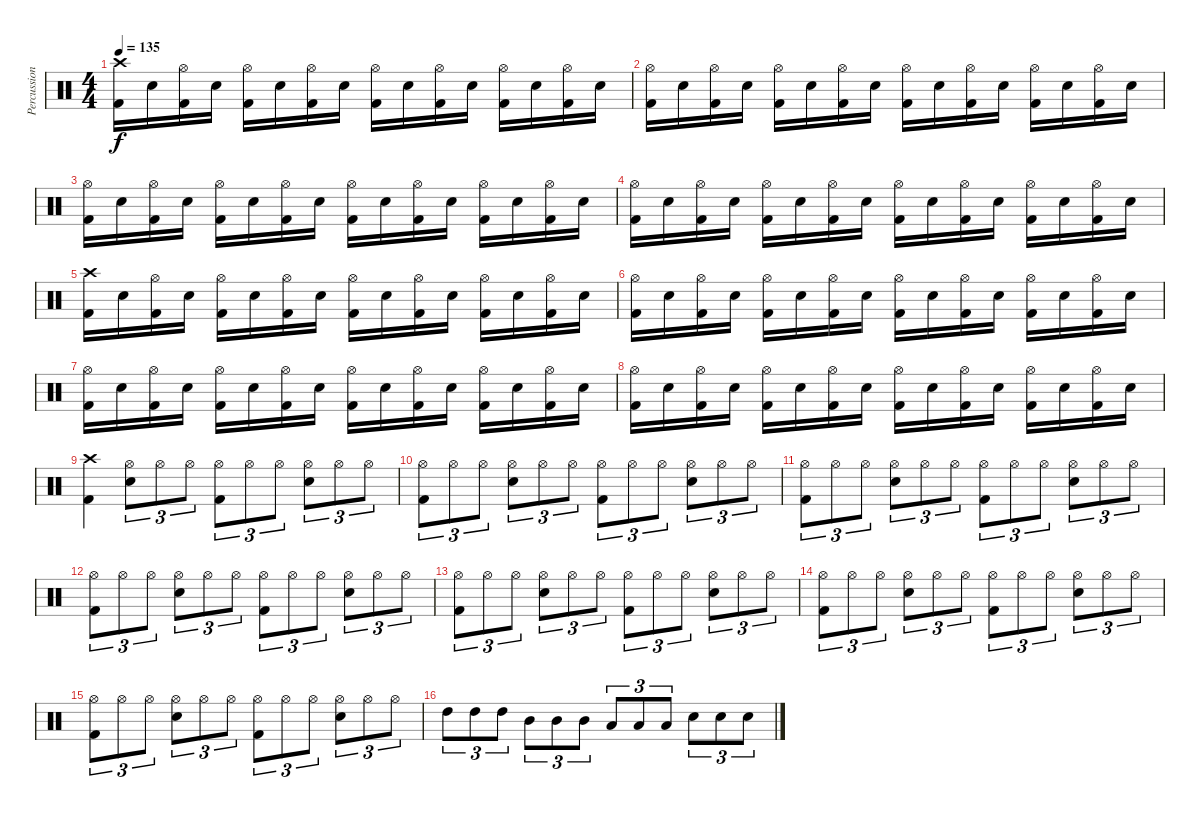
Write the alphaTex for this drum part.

\track ("Percussions" "Percussion") {instrument percussion}
\staff {score}
\articulation defaults
\ts (4 4)
\tempo 135
\clef neutral
\ks c
("Crash high (hit)" "Kick (hit) 2").16{dy f} "Electric Snare (hit)".16 ("Hi-Hat (open)" "Kick (hit) 2").16 "Electric Snare (hit)".16 ("Hi-Hat (open)" "Kick (hit) 2").16 "Electric Snare (hit)".16 ("Hi-Hat (open)" "Kick (hit) 2").16 "Electric Snare (hit)".16 ("Hi-Hat (open)" "Kick (hit) 2").16 "Electric Snare (hit)".16 ("Hi-Hat (open)" "Kick (hit) 2").16 "Electric Snare (hit)".16 ("Hi-Hat (open)" "Kick (hit) 2").16 "Electric Snare (hit)".16 ("Hi-Hat (open)" "Kick (hit) 2").16 "Electric Snare (hit)".16 |
("Hi-Hat (open)" "Kick (hit) 2").16 "Electric Snare (hit)".16 ("Hi-Hat (open)" "Kick (hit) 2").16 "Electric Snare (hit)".16 ("Hi-Hat (open)" "Kick (hit) 2").16 "Electric Snare (hit)".16 ("Hi-Hat (open)" "Kick (hit) 2").16 "Electric Snare (hit)".16 ("Hi-Hat (open)" "Kick (hit) 2").16 "Electric Snare (hit)".16 ("Hi-Hat (open)" "Kick (hit) 2").16 "Electric Snare (hit)".16 ("Hi-Hat (open)" "Kick (hit) 2").16 "Electric Snare (hit)".16 ("Hi-Hat (open)" "Kick (hit) 2").16 "Electric Snare (hit)".16 |
("Hi-Hat (open)" "Kick (hit) 2").16 "Electric Snare (hit)".16 ("Hi-Hat (open)" "Kick (hit) 2").16 "Electric Snare (hit)".16 ("Hi-Hat (open)" "Kick (hit) 2").16 "Electric Snare (hit)".16 ("Hi-Hat (open)" "Kick (hit) 2").16 "Electric Snare (hit)".16 ("Hi-Hat (open)" "Kick (hit) 2").16 "Electric Snare (hit)".16 ("Hi-Hat (open)" "Kick (hit) 2").16 "Electric Snare (hit)".16 ("Hi-Hat (open)" "Kick (hit) 2").16 "Electric Snare (hit)".16 ("Hi-Hat (open)" "Kick (hit) 2").16 "Electric Snare (hit)".16 |
("Hi-Hat (open)" "Kick (hit) 2").16 "Electric Snare (hit)".16 ("Hi-Hat (open)" "Kick (hit) 2").16 "Electric Snare (hit)".16 ("Hi-Hat (open)" "Kick (hit) 2").16 "Electric Snare (hit)".16 ("Hi-Hat (open)" "Kick (hit) 2").16 "Electric Snare (hit)".16 ("Hi-Hat (open)" "Kick (hit) 2").16 "Electric Snare (hit)".16 ("Hi-Hat (open)" "Kick (hit) 2").16 "Electric Snare (hit)".16 ("Hi-Hat (open)" "Kick (hit) 2").16 "Electric Snare (hit)".16 ("Hi-Hat (open)" "Kick (hit) 2").16 "Electric Snare (hit)".16 |
("Crash high (hit)" "Kick (hit) 2").16 "Electric Snare (hit)".16 ("Hi-Hat (open)" "Kick (hit) 2").16 "Electric Snare (hit)".16 ("Hi-Hat (open)" "Kick (hit) 2").16 "Electric Snare (hit)".16 ("Hi-Hat (open)" "Kick (hit) 2").16 "Electric Snare (hit)".16 ("Hi-Hat (open)" "Kick (hit) 2").16 "Electric Snare (hit)".16 ("Hi-Hat (open)" "Kick (hit) 2").16 "Electric Snare (hit)".16 ("Hi-Hat (open)" "Kick (hit) 2").16 "Electric Snare (hit)".16 ("Hi-Hat (open)" "Kick (hit) 2").16 "Electric Snare (hit)".16 |
("Hi-Hat (open)" "Kick (hit) 2").16 "Electric Snare (hit)".16 ("Hi-Hat (open)" "Kick (hit) 2").16 "Electric Snare (hit)".16 ("Hi-Hat (open)" "Kick (hit) 2").16 "Electric Snare (hit)".16 ("Hi-Hat (open)" "Kick (hit) 2").16 "Electric Snare (hit)".16 ("Hi-Hat (open)" "Kick (hit) 2").16 "Electric Snare (hit)".16 ("Hi-Hat (open)" "Kick (hit) 2").16 "Electric Snare (hit)".16 ("Hi-Hat (open)" "Kick (hit) 2").16 "Electric Snare (hit)".16 ("Hi-Hat (open)" "Kick (hit) 2").16 "Electric Snare (hit)".16 |
("Hi-Hat (open)" "Kick (hit) 2").16 "Electric Snare (hit)".16 ("Hi-Hat (open)" "Kick (hit) 2").16 "Electric Snare (hit)".16 ("Hi-Hat (open)" "Kick (hit) 2").16 "Electric Snare (hit)".16 ("Hi-Hat (open)" "Kick (hit) 2").16 "Electric Snare (hit)".16 ("Hi-Hat (open)" "Kick (hit) 2").16 "Electric Snare (hit)".16 ("Hi-Hat (open)" "Kick (hit) 2").16 "Electric Snare (hit)".16 ("Hi-Hat (open)" "Kick (hit) 2").16 "Electric Snare (hit)".16 ("Hi-Hat (open)" "Kick (hit) 2").16 "Electric Snare (hit)".16 |
("Hi-Hat (open)" "Kick (hit) 2").16 "Electric Snare (hit)".16 ("Hi-Hat (open)" "Kick (hit) 2").16 "Electric Snare (hit)".16 ("Hi-Hat (open)" "Kick (hit) 2").16 "Electric Snare (hit)".16 ("Hi-Hat (open)" "Kick (hit) 2").16 "Electric Snare (hit)".16 ("Hi-Hat (open)" "Kick (hit) 2").16 "Electric Snare (hit)".16 ("Hi-Hat (open)" "Kick (hit) 2").16 "Electric Snare (hit)".16 ("Hi-Hat (open)" "Kick (hit) 2").16 "Electric Snare (hit)".16 ("Hi-Hat (open)" "Kick (hit) 2").16 "Electric Snare (hit)".16 |
("Crash high (hit)" "Kick (hit) 2").4 ("Hi-Hat (open)" "Electric Snare (hit)").8{tu (3 2)} "Hi-Hat (open)".8{tu (3 2)} "Hi-Hat (open)".8{tu (3 2)} ("Hi-Hat (open)" "Kick (hit) 2").8{tu (3 2)} "Hi-Hat (open)".8{tu (3 2)} "Hi-Hat (open)".8{tu (3 2)} ("Hi-Hat (open)" "Electric Snare (hit)").8{tu (3 2)} "Hi-Hat (open)".8{tu (3 2)} "Hi-Hat (open)".8{tu (3 2)} |
("Hi-Hat (open)" "Kick (hit) 2").8{tu (3 2)} "Hi-Hat (open)".8{tu (3 2)} "Hi-Hat (open)".8{tu (3 2)} ("Hi-Hat (open)" "Electric Snare (hit)").8{tu (3 2)} "Hi-Hat (open)".8{tu (3 2)} "Hi-Hat (open)".8{tu (3 2)} ("Hi-Hat (open)" "Kick (hit) 2").8{tu (3 2)} "Hi-Hat (open)".8{tu (3 2)} "Hi-Hat (open)".8{tu (3 2)} ("Hi-Hat (open)" "Electric Snare (hit)").8{tu (3 2)} "Hi-Hat (open)".8{tu (3 2)} "Hi-Hat (open)".8{tu (3 2)} |
("Hi-Hat (open)" "Kick (hit) 2").8{tu (3 2)} "Hi-Hat (open)".8{tu (3 2)} "Hi-Hat (open)".8{tu (3 2)} ("Hi-Hat (open)" "Electric Snare (hit)").8{tu (3 2)} "Hi-Hat (open)".8{tu (3 2)} "Hi-Hat (open)".8{tu (3 2)} ("Hi-Hat (open)" "Kick (hit) 2").8{tu (3 2)} "Hi-Hat (open)".8{tu (3 2)} "Hi-Hat (open)".8{tu (3 2)} ("Hi-Hat (open)" "Electric Snare (hit)").8{tu (3 2)} "Hi-Hat (open)".8{tu (3 2)} "Hi-Hat (open)".8{tu (3 2)} |
("Hi-Hat (open)" "Kick (hit) 2").8{tu (3 2)} "Hi-Hat (open)".8{tu (3 2)} "Hi-Hat (open)".8{tu (3 2)} ("Hi-Hat (open)" "Electric Snare (hit)").8{tu (3 2)} "Hi-Hat (open)".8{tu (3 2)} "Hi-Hat (open)".8{tu (3 2)} ("Hi-Hat (open)" "Kick (hit) 2").8{tu (3 2)} "Hi-Hat (open)".8{tu (3 2)} "Hi-Hat (open)".8{tu (3 2)} ("Hi-Hat (open)" "Electric Snare (hit)").8{tu (3 2)} "Hi-Hat (open)".8{tu (3 2)} "Hi-Hat (open)".8{tu (3 2)} |
("Hi-Hat (open)" "Kick (hit) 2").8{tu (3 2)} "Hi-Hat (open)".8{tu (3 2)} "Hi-Hat (open)".8{tu (3 2)} ("Hi-Hat (open)" "Electric Snare (hit)").8{tu (3 2)} "Hi-Hat (open)".8{tu (3 2)} "Hi-Hat (open)".8{tu (3 2)} ("Hi-Hat (open)" "Kick (hit) 2").8{tu (3 2)} "Hi-Hat (open)".8{tu (3 2)} "Hi-Hat (open)".8{tu (3 2)} ("Hi-Hat (open)" "Electric Snare (hit)").8{tu (3 2)} "Hi-Hat (open)".8{tu (3 2)} "Hi-Hat (open)".8{tu (3 2)} |
("Hi-Hat (open)" "Kick (hit) 2").8{tu (3 2)} "Hi-Hat (open)".8{tu (3 2)} "Hi-Hat (open)".8{tu (3 2)} ("Hi-Hat (open)" "Electric Snare (hit)").8{tu (3 2)} "Hi-Hat (open)".8{tu (3 2)} "Hi-Hat (open)".8{tu (3 2)} ("Hi-Hat (open)" "Kick (hit) 2").8{tu (3 2)} "Hi-Hat (open)".8{tu (3 2)} "Hi-Hat (open)".8{tu (3 2)} ("Hi-Hat (open)" "Electric Snare (hit)").8{tu (3 2)} "Hi-Hat (open)".8{tu (3 2)} "Hi-Hat (open)".8{tu (3 2)} |
("Hi-Hat (open)" "Kick (hit) 2").8{tu (3 2)} "Hi-Hat (open)".8{tu (3 2)} "Hi-Hat (open)".8{tu (3 2)} ("Hi-Hat (open)" "Electric Snare (hit)").8{tu (3 2)} "Hi-Hat (open)".8{tu (3 2)} "Hi-Hat (open)".8{tu (3 2)} ("Hi-Hat (open)" "Kick (hit) 2").8{tu (3 2)} "Hi-Hat (open)".8{tu (3 2)} "Hi-Hat (open)".8{tu (3 2)} ("Hi-Hat (open)" "Electric Snare (hit)").8{tu (3 2)} "Hi-Hat (open)".8{tu (3 2)} "Hi-Hat (open)".8{tu (3 2)} |
"High Tom (hit)".8{tu (3 2)} "High Tom (hit)".8{tu (3 2)} "High Tom (hit)".8{tu (3 2)} "Mid Tom (hit)".8{tu (3 2)} "Mid Tom (hit)".8{tu (3 2)} "Mid Tom (hit)".8{tu (3 2)} "Low Tom (hit)".8{tu (3 2)} "Low Tom (hit)".8{tu (3 2)} "Low Tom (hit)".8{tu (3 2)} "Electric Snare (hit)".8{tu (3 2)} "Electric Snare (hit)".8{tu (3 2)} "Electric Snare (hit)".8{tu (3 2)}
